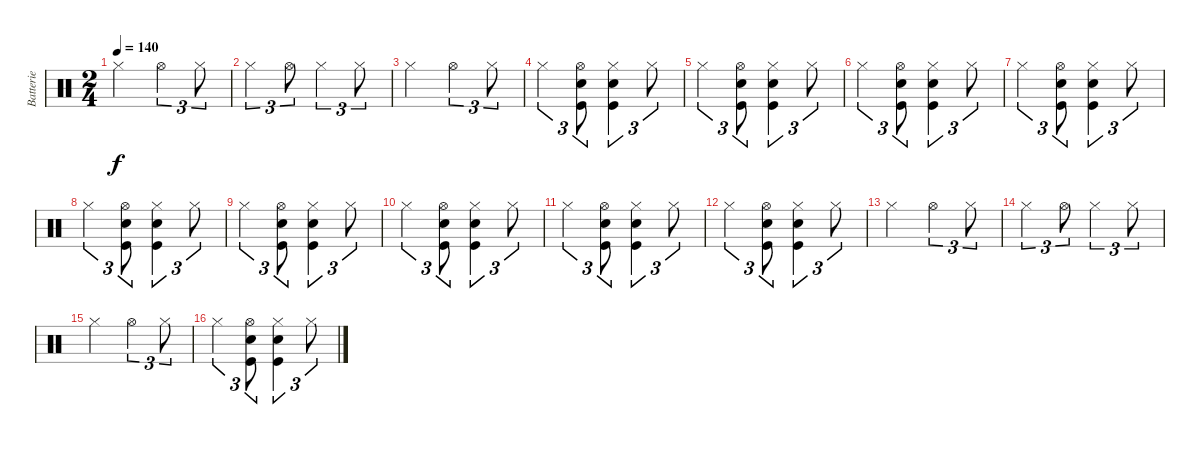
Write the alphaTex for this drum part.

\track ("Batterie" "Batterie") {instrument percussion}
\staff {score}
\articulation defaults
\ts (2 4)
\tempo 140
\clef neutral
\ks c "Hi-Hat (closed)".4{dy f} "Hi-Hat (open)".4{tu (3 2)} "Hi-Hat (closed)".8{tu (3 2)}
|
"Hi-Hat (closed)".4{tu (3 2)} "Hi-Hat (open)".8{tu (3 2)} "Hi-Hat (closed)".4{tu (3 2)} "Hi-Hat (closed)".8{tu (3 2)} |
"Hi-Hat (closed)".4 "Hi-Hat (open)".4{tu (3 2)} "Hi-Hat (closed)".8{tu (3 2)} |
"Hi-Hat (closed)".4{tu (3 2)} ("Hi-Hat (open)" "Snare (hit) 2" "Kick (hit)").8{tu (3 2)} ("Hi-Hat (closed)" "Snare (hit) 2" "Kick (hit)").4{tu (3 2)} "Hi-Hat (closed)".8{tu (3 2)} |
"Hi-Hat (closed)".4{tu (3 2)} ("Hi-Hat (open)" "Snare (hit) 2" "Kick (hit)").8{tu (3 2)} ("Hi-Hat (closed)" "Snare (hit) 2" "Kick (hit)").4{tu (3 2)} "Hi-Hat (closed)".8{tu (3 2)} |
"Hi-Hat (closed)".4{tu (3 2)} ("Hi-Hat (open)" "Snare (hit) 2" "Kick (hit)").8{tu (3 2)} ("Hi-Hat (closed)" "Snare (hit) 2" "Kick (hit)").4{tu (3 2)} "Hi-Hat (closed)".8{tu (3 2)} |
"Hi-Hat (closed)".4{tu (3 2)} ("Hi-Hat (open)" "Snare (hit) 2" "Kick (hit)").8{tu (3 2)} ("Hi-Hat (closed)" "Snare (hit) 2" "Kick (hit)").4{tu (3 2)} "Hi-Hat (closed)".8{tu (3 2)} |
"Hi-Hat (closed)".4{tu (3 2)} ("Hi-Hat (open)" "Snare (hit) 2" "Kick (hit)").8{tu (3 2)} ("Hi-Hat (closed)" "Snare (hit) 2" "Kick (hit)").4{tu (3 2)} "Hi-Hat (closed)".8{tu (3 2)} |
"Hi-Hat (closed)".4{tu (3 2)} ("Hi-Hat (open)" "Snare (hit) 2" "Kick (hit)").8{tu (3 2)} ("Hi-Hat (closed)" "Snare (hit) 2" "Kick (hit)").4{tu (3 2)} "Hi-Hat (closed)".8{tu (3 2)} |
"Hi-Hat (closed)".4{tu (3 2)} ("Hi-Hat (open)" "Snare (hit) 2" "Kick (hit)").8{tu (3 2)} ("Hi-Hat (closed)" "Snare (hit) 2" "Kick (hit)").4{tu (3 2)} "Hi-Hat (closed)".8{tu (3 2)} |
"Hi-Hat (closed)".4{tu (3 2)} ("Hi-Hat (open)" "Snare (hit) 2" "Kick (hit)").8{tu (3 2)} ("Hi-Hat (closed)" "Snare (hit) 2" "Kick (hit)").4{tu (3 2)} "Hi-Hat (closed)".8{tu (3 2)} |
"Hi-Hat (closed)".4{tu (3 2)} ("Hi-Hat (open)" "Snare (hit) 2" "Kick (hit)").8{tu (3 2)} ("Hi-Hat (closed)" "Snare (hit) 2" "Kick (hit)").4{tu (3 2)} "Hi-Hat (closed)".8{tu (3 2)} |
"Hi-Hat (closed)".4 "Hi-Hat (open)".4{tu (3 2)} "Hi-Hat (closed)".8{tu (3 2)} |
"Hi-Hat (closed)".4{tu (3 2)} "Hi-Hat (open)".8{tu (3 2)} "Hi-Hat (closed)".4{tu (3 2)} "Hi-Hat (closed)".8{tu (3 2)} |
"Hi-Hat (closed)".4 "Hi-Hat (open)".4{tu (3 2)} "Hi-Hat (closed)".8{tu (3 2)} |
"Hi-Hat (closed)".4{tu (3 2)} ("Hi-Hat (open)" "Snare (hit) 2" "Kick (hit)").8{tu (3 2)} ("Hi-Hat (closed)" "Snare (hit) 2" "Kick (hit)").4{tu (3 2)} "Hi-Hat (closed)".8{tu (3 2)}
